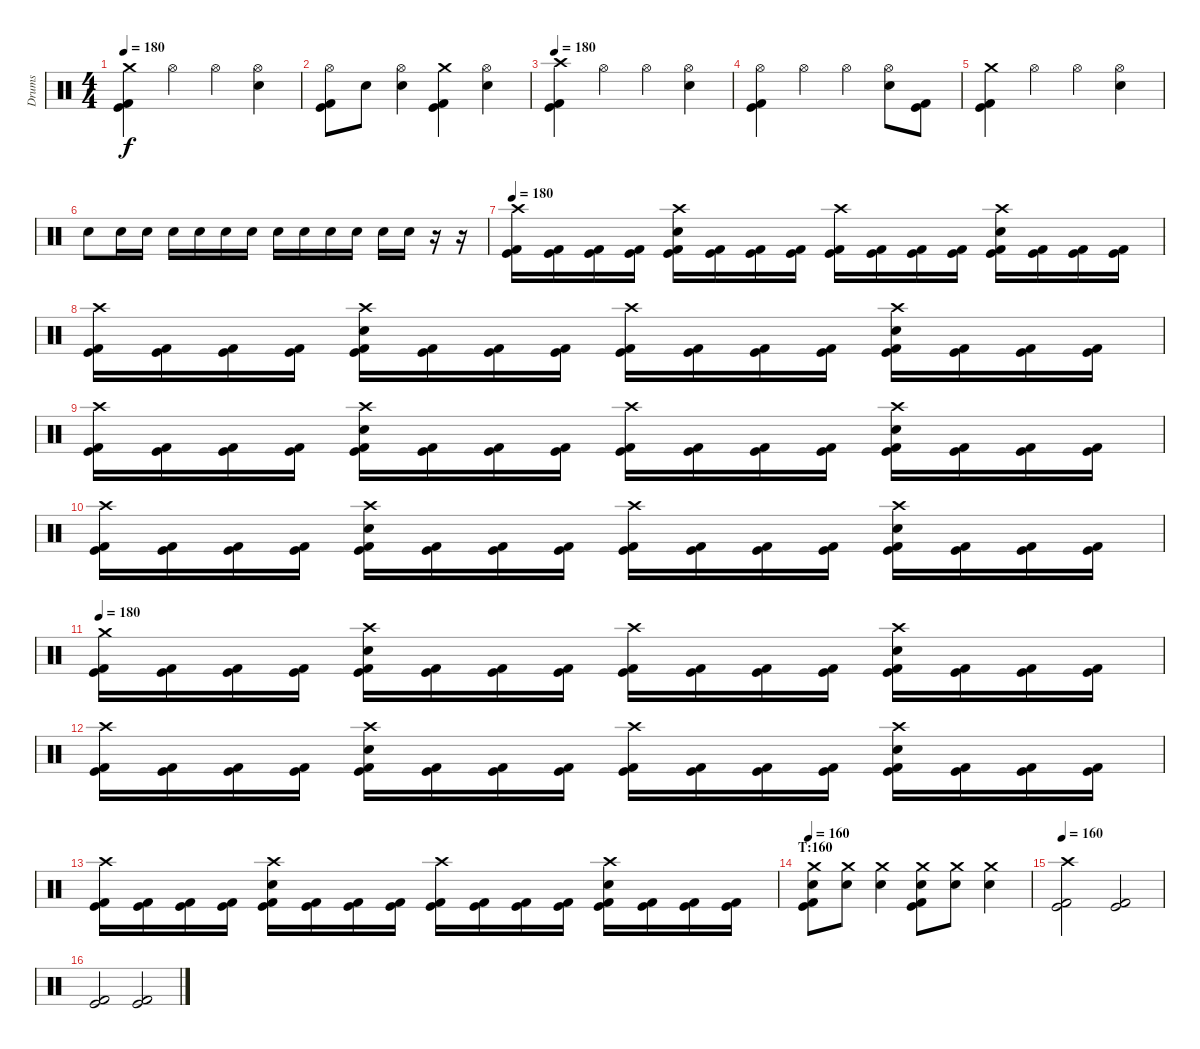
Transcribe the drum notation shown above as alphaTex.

\track ("Drums" "Drums") {instrument percussion}
\staff {score}
\articulation defaults
\ts (4 4)
\tempo 180
\clef neutral
\ks c
("Crash medium (hit)" "Kick (hit)" "Kick (hit) 2").4{dy f} "Hi-Hat (open)".4 "Hi-Hat (open)".4 ("Hi-Hat (open)" "Electric Snare (hit)").4 |
("Hi-Hat (open)" "Kick (hit)" "Kick (hit) 2").8 "Electric Snare (hit)".8 ("Hi-Hat (open)" "Electric Snare (hit)").4 ("Crash medium (hit)" "Kick (hit)" "Kick (hit) 2").4 ("Hi-Hat (open)" "Electric Snare (hit)").4 |
\tempo 180
("Crash high (hit)" "Kick (hit)" "Kick (hit) 2").4 "Hi-Hat (open)".4 "Hi-Hat (open)".4 ("Hi-Hat (open)" "Electric Snare (hit)").4 |
("Hi-Hat (open)" "Kick (hit)" "Kick (hit) 2").4 "Hi-Hat (open)".4 "Hi-Hat (open)".4 ("Hi-Hat (open)" "Electric Snare (hit)").8 ("Kick (hit)" "Kick (hit) 2").8 |
("Crash medium (hit)" "Kick (hit)" "Kick (hit) 2").4 "Hi-Hat (open)".4 "Hi-Hat (open)".4 ("Hi-Hat (open)" "Electric Snare (hit)").4 |
"Electric Snare (hit)".8 "Electric Snare (hit)".16 "Electric Snare (hit)".16 "Electric Snare (hit)".16 "Electric Snare (hit)".16 "Electric Snare (hit)".16 "Electric Snare (hit)".16 "Electric Snare (hit)".16 "Electric Snare (hit)".16 "Electric Snare (hit)".16 "Electric Snare (hit)".16 "Electric Snare (hit)".16 "Electric Snare (hit)".16 r.16 r.16 |
\tempo 180
("Crash high (hit)" "Kick (hit)" "Kick (hit) 2").16 ("Kick (hit)" "Kick (hit) 2").16 ("Kick (hit)" "Kick (hit) 2").16 ("Kick (hit)" "Kick (hit) 2").16 ("Crash high (hit)" "Electric Snare (hit)" "Kick (hit)" "Kick (hit) 2").16 ("Kick (hit)" "Kick (hit) 2").16 ("Kick (hit)" "Kick (hit) 2").16 ("Kick (hit)" "Kick (hit) 2").16 ("Crash high (hit)" "Kick (hit)" "Kick (hit) 2").16 ("Kick (hit)" "Kick (hit) 2").16 ("Kick (hit)" "Kick (hit) 2").16 ("Kick (hit)" "Kick (hit) 2").16 ("Crash high (hit)" "Electric Snare (hit)" "Kick (hit)" "Kick (hit) 2").16 ("Kick (hit)" "Kick (hit) 2").16 ("Kick (hit)" "Kick (hit) 2").16 ("Kick (hit)" "Kick (hit) 2").16 |
("Crash high (hit)" "Kick (hit)" "Kick (hit) 2").16 ("Kick (hit)" "Kick (hit) 2").16 ("Kick (hit)" "Kick (hit) 2").16 ("Kick (hit)" "Kick (hit) 2").16 ("Crash high (hit)" "Electric Snare (hit)" "Kick (hit)" "Kick (hit) 2").16 ("Kick (hit)" "Kick (hit) 2").16 ("Kick (hit)" "Kick (hit) 2").16 ("Kick (hit)" "Kick (hit) 2").16 ("Crash high (hit)" "Kick (hit)" "Kick (hit) 2").16 ("Kick (hit)" "Kick (hit) 2").16 ("Kick (hit)" "Kick (hit) 2").16 ("Kick (hit)" "Kick (hit) 2").16 ("Crash high (hit)" "Electric Snare (hit)" "Kick (hit)" "Kick (hit) 2").16 ("Kick (hit)" "Kick (hit) 2").16 ("Kick (hit)" "Kick (hit) 2").16 ("Kick (hit)" "Kick (hit) 2").16 |
("Crash high (hit)" "Kick (hit)" "Kick (hit) 2").16 ("Kick (hit)" "Kick (hit) 2").16 ("Kick (hit)" "Kick (hit) 2").16 ("Kick (hit)" "Kick (hit) 2").16 ("Crash high (hit)" "Electric Snare (hit)" "Kick (hit)" "Kick (hit) 2").16 ("Kick (hit)" "Kick (hit) 2").16 ("Kick (hit)" "Kick (hit) 2").16 ("Kick (hit)" "Kick (hit) 2").16 ("Crash high (hit)" "Kick (hit)" "Kick (hit) 2").16 ("Kick (hit)" "Kick (hit) 2").16 ("Kick (hit)" "Kick (hit) 2").16 ("Kick (hit)" "Kick (hit) 2").16 ("Crash high (hit)" "Electric Snare (hit)" "Kick (hit)" "Kick (hit) 2").16 ("Kick (hit)" "Kick (hit) 2").16 ("Kick (hit)" "Kick (hit) 2").16 ("Kick (hit)" "Kick (hit) 2").16 |
("Crash high (hit)" "Kick (hit)" "Kick (hit) 2").16 ("Kick (hit)" "Kick (hit) 2").16 ("Kick (hit)" "Kick (hit) 2").16 ("Kick (hit)" "Kick (hit) 2").16 ("Crash high (hit)" "Electric Snare (hit)" "Kick (hit)" "Kick (hit) 2").16 ("Kick (hit)" "Kick (hit) 2").16 ("Kick (hit)" "Kick (hit) 2").16 ("Kick (hit)" "Kick (hit) 2").16 ("Crash high (hit)" "Kick (hit)" "Kick (hit) 2").16 ("Kick (hit)" "Kick (hit) 2").16 ("Kick (hit)" "Kick (hit) 2").16 ("Kick (hit)" "Kick (hit) 2").16 ("Crash high (hit)" "Electric Snare (hit)" "Kick (hit)" "Kick (hit) 2").16 ("Kick (hit)" "Kick (hit) 2").16 ("Kick (hit)" "Kick (hit) 2").16 ("Kick (hit)" "Kick (hit) 2").16 |
\tempo 180
("Crash medium (hit)" "Kick (hit)" "Kick (hit) 2").16 ("Kick (hit)" "Kick (hit) 2").16 ("Kick (hit)" "Kick (hit) 2").16 ("Kick (hit)" "Kick (hit) 2").16 ("Crash high (hit)" "Electric Snare (hit)" "Kick (hit)" "Kick (hit) 2").16 ("Kick (hit)" "Kick (hit) 2").16 ("Kick (hit)" "Kick (hit) 2").16 ("Kick (hit)" "Kick (hit) 2").16 ("Crash high (hit)" "Kick (hit)" "Kick (hit) 2").16 ("Kick (hit)" "Kick (hit) 2").16 ("Kick (hit)" "Kick (hit) 2").16 ("Kick (hit)" "Kick (hit) 2").16 ("Crash high (hit)" "Electric Snare (hit)" "Kick (hit)" "Kick (hit) 2").16 ("Kick (hit)" "Kick (hit) 2").16 ("Kick (hit)" "Kick (hit) 2").16 ("Kick (hit)" "Kick (hit) 2").16 |
("Crash high (hit)" "Kick (hit)" "Kick (hit) 2").16 ("Kick (hit)" "Kick (hit) 2").16 ("Kick (hit)" "Kick (hit) 2").16 ("Kick (hit)" "Kick (hit) 2").16 ("Crash high (hit)" "Electric Snare (hit)" "Kick (hit)" "Kick (hit) 2").16 ("Kick (hit)" "Kick (hit) 2").16 ("Kick (hit)" "Kick (hit) 2").16 ("Kick (hit)" "Kick (hit) 2").16 ("Crash high (hit)" "Kick (hit)" "Kick (hit) 2").16 ("Kick (hit)" "Kick (hit) 2").16 ("Kick (hit)" "Kick (hit) 2").16 ("Kick (hit)" "Kick (hit) 2").16 ("Crash high (hit)" "Electric Snare (hit)" "Kick (hit)" "Kick (hit) 2").16 ("Kick (hit)" "Kick (hit) 2").16 ("Kick (hit)" "Kick (hit) 2").16 ("Kick (hit)" "Kick (hit) 2").16 |
("Crash high (hit)" "Kick (hit)" "Kick (hit) 2").16 ("Kick (hit)" "Kick (hit) 2").16 ("Kick (hit)" "Kick (hit) 2").16 ("Kick (hit)" "Kick (hit) 2").16 ("Crash high (hit)" "Electric Snare (hit)" "Kick (hit)" "Kick (hit) 2").16 ("Kick (hit)" "Kick (hit) 2").16 ("Kick (hit)" "Kick (hit) 2").16 ("Kick (hit)" "Kick (hit) 2").16 ("Crash high (hit)" "Kick (hit)" "Kick (hit) 2").16 ("Kick (hit)" "Kick (hit) 2").16 ("Kick (hit)" "Kick (hit) 2").16 ("Kick (hit)" "Kick (hit) 2").16 ("Crash high (hit)" "Electric Snare (hit)" "Kick (hit)" "Kick (hit) 2").16 ("Kick (hit)" "Kick (hit) 2").16 ("Kick (hit)" "Kick (hit) 2").16 ("Kick (hit)" "Kick (hit) 2").16 |
\section ("" "T:160")
\tempo 160
("Crash medium (hit)" "Electric Snare (hit)" "Kick (hit)" "Kick (hit) 2").8 ("Crash medium (hit)" "Electric Snare (hit)").8 ("Crash medium (hit)" "Electric Snare (hit)").4 ("Crash medium (hit)" "Electric Snare (hit)" "Kick (hit)" "Kick (hit) 2").8 ("Crash medium (hit)" "Electric Snare (hit)").8 ("Crash medium (hit)" "Electric Snare (hit)").4 |
\tempo 160
("Crash high (hit)" "Kick (hit)" "Kick (hit) 2").2 ("Kick (hit)" "Kick (hit) 2").2 |
("Kick (hit)" "Kick (hit) 2").2 ("Kick (hit)" "Kick (hit) 2").2
